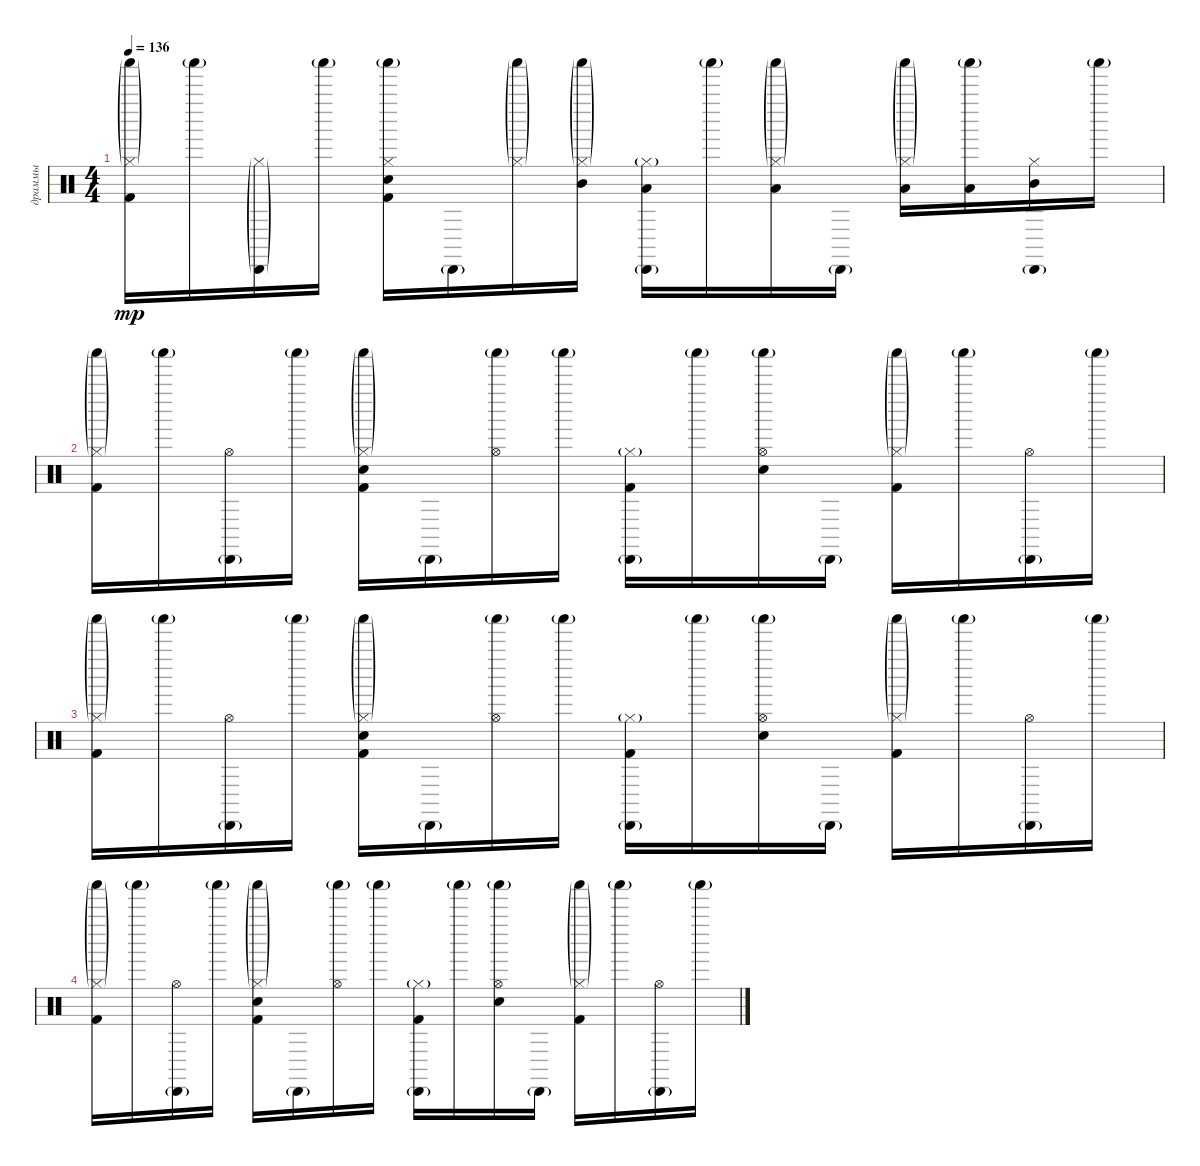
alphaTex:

\track ("драммы" "драммы") {instrument percussion}
\staff {score}
\articulation defaults
\ts (4 4)
\tempo 136
\clef neutral
\ks c
("Shaker (hit)"{g} "Kick (hit) 2" "Hi-Hat (closed)"{g}).16{dy mp} "Shaker (hit)"{g}.16 ("Cabasa (hit)"{g} "Hi-Hat (closed)"{g}).16 "Shaker (hit)"{g}.16 ("Shaker (hit)"{g} "Snare (hit) 2" "Kick (hit) 2" "Hi-Hat (closed)").16 "Cabasa (hit)"{g}.16 ("Shaker (hit)"{g} "Hi-Hat (closed)"{g}).16 ("Shaker (hit)"{g} "Mid Tom (hit)" "Hi-Hat (closed)"{g}).16 ("Cabasa (hit)"{g} "Low Tom (hit)" "Hi-Hat (closed)"{g}).16 "Shaker (hit)"{g}.16 ("Shaker (hit)"{g} "Low Tom (hit)" "Hi-Hat (closed)"{g}).16 "Cabasa (hit)"{g}.16 ("Shaker (hit)"{g} "Low Tom (hit)" "Hi-Hat (closed)"{g}).16 ("Shaker (hit)"{g} "Low Tom (hit)").16 ("Cabasa (hit)"{g} "Mid Tom (hit)" "Hi-Hat (closed)").16 "Shaker (hit)"{g}.16 |
("Shaker (hit)"{g} "Kick (hit) 2" "Hi-Hat (closed)"{g}).16 "Shaker (hit)"{g}.16 ("Cabasa (hit)"{g} "Hi-Hat (open)").16 "Shaker (hit)"{g}.16 ("Shaker (hit)"{g} "Snare (hit) 2" "Kick (hit) 2" "Hi-Hat (closed)"{g}).16 "Cabasa (hit)"{g}.16 ("Shaker (hit)"{g} "Hi-Hat (open)").16 "Shaker (hit)"{g}.16 ("Cabasa (hit)"{g} "Kick (hit) 2" "Hi-Hat (closed)"{g}).16 "Shaker (hit)"{g}.16 ("Shaker (hit)"{g} "Snare (hit) 2" "Hi-Hat (open)").16 "Cabasa (hit)"{g}.16 ("Shaker (hit)"{g} "Kick (hit) 2" "Hi-Hat (closed)"{g}).16 "Shaker (hit)"{g}.16 ("Cabasa (hit)"{g} "Hi-Hat (open)").16 "Shaker (hit)"{g}.16 |
("Shaker (hit)"{g} "Kick (hit) 2" "Hi-Hat (closed)"{g}).16 "Shaker (hit)"{g}.16 ("Cabasa (hit)"{g} "Hi-Hat (open)").16 "Shaker (hit)"{g}.16 ("Shaker (hit)"{g} "Snare (hit) 2" "Kick (hit) 2" "Hi-Hat (closed)"{g}).16 "Cabasa (hit)"{g}.16 ("Shaker (hit)"{g} "Hi-Hat (open)").16 "Shaker (hit)"{g}.16 ("Cabasa (hit)"{g} "Kick (hit) 2" "Hi-Hat (closed)"{g}).16 "Shaker (hit)"{g}.16 ("Shaker (hit)"{g} "Snare (hit) 2" "Hi-Hat (open)").16 "Cabasa (hit)"{g}.16 ("Shaker (hit)"{g} "Kick (hit) 2" "Hi-Hat (closed)"{g}).16 "Shaker (hit)"{g}.16 ("Cabasa (hit)"{g} "Hi-Hat (open)").16 "Shaker (hit)"{g}.16 |
("Shaker (hit)"{g} "Kick (hit) 2" "Hi-Hat (closed)"{g}).16 "Shaker (hit)"{g}.16 ("Cabasa (hit)"{g} "Hi-Hat (open)").16 "Shaker (hit)"{g}.16 ("Shaker (hit)"{g} "Snare (hit) 2" "Kick (hit) 2" "Hi-Hat (closed)"{g}).16 "Cabasa (hit)"{g}.16 ("Shaker (hit)"{g} "Hi-Hat (open)").16 "Shaker (hit)"{g}.16 ("Cabasa (hit)"{g} "Kick (hit) 2" "Hi-Hat (closed)"{g}).16 "Shaker (hit)"{g}.16 ("Shaker (hit)"{g} "Snare (hit) 2" "Hi-Hat (open)").16 "Cabasa (hit)"{g}.16 ("Shaker (hit)"{g} "Kick (hit) 2" "Hi-Hat (closed)"{g}).16 "Shaker (hit)"{g}.16 ("Cabasa (hit)"{g} "Hi-Hat (open)").16 "Shaker (hit)"{g}.16
